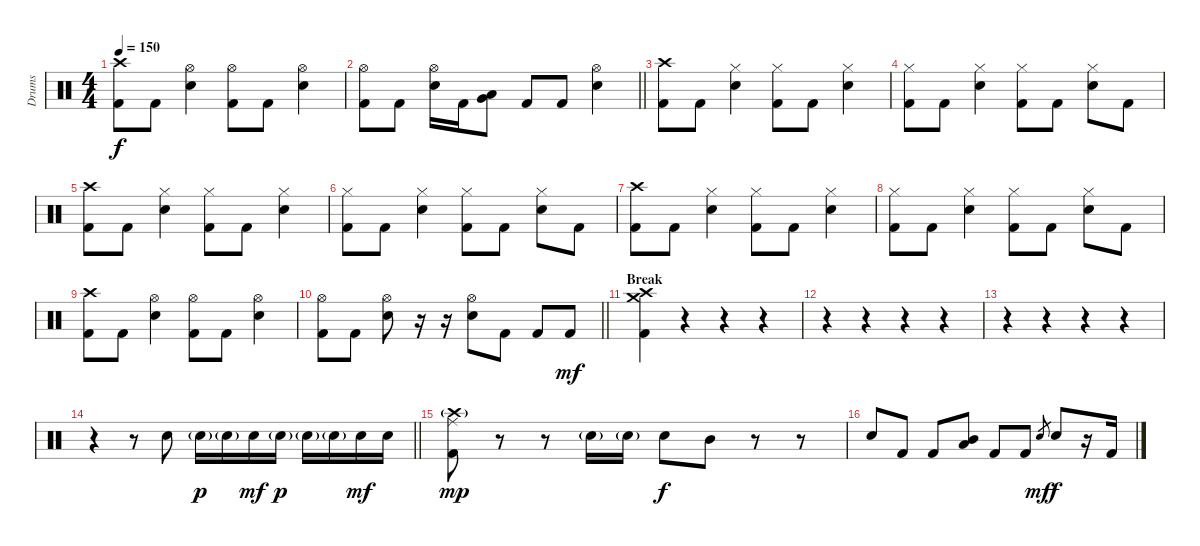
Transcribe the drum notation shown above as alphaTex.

\track ("Drums" "Drums") {instrument percussion}
\staff {score}
\articulation defaults
\ts (4 4)
\tempo 150
\clef neutral
\ks c
("Crash high (hit)" "Kick (hit) 2").8{dy f} "Kick (hit) 2".8 ("Hi-Hat (open)" "Electric Snare (hit)").4 ("Hi-Hat (open)" "Kick (hit) 2").8 "Kick (hit) 2".8 ("Hi-Hat (open)" "Electric Snare (hit)").4 |
\barLineRight lightlight
("Hi-Hat (open)" "Kick (hit) 2").8 "Kick (hit) 2".8 ("Hi-Hat (open)" "Electric Snare (hit)").16 "Kick (hit) 2".16 ("Low Tom (hit)" "Very Low Tom (hit)").8 "Kick (hit) 2".8 "Kick (hit) 2".8 ("Hi-Hat (open)" "Electric Snare (hit)").4 |
("Crash high (hit)" "Kick (hit) 2").8 "Kick (hit) 2".8 ("Hi-Hat (closed)" "Electric Snare (hit)").4 ("Hi-Hat (closed)" "Kick (hit) 2").8 "Kick (hit) 2".8 ("Hi-Hat (closed)" "Electric Snare (hit)").4 |
("Hi-Hat (closed)" "Kick (hit) 2").8 "Kick (hit) 2".8 ("Hi-Hat (closed)" "Electric Snare (hit)").4 ("Hi-Hat (closed)" "Kick (hit) 2").8 "Kick (hit) 2".8 ("Hi-Hat (closed)" "Electric Snare (hit)").8 "Kick (hit) 2".8 |
("Crash high (hit)" "Kick (hit) 2").8 "Kick (hit) 2".8 ("Hi-Hat (closed)" "Electric Snare (hit)").4 ("Hi-Hat (closed)" "Kick (hit) 2").8 "Kick (hit) 2".8 ("Hi-Hat (closed)" "Electric Snare (hit)").4 |
("Hi-Hat (closed)" "Kick (hit) 2").8 "Kick (hit) 2".8 ("Hi-Hat (closed)" "Electric Snare (hit)").4 ("Hi-Hat (closed)" "Kick (hit) 2").8 "Kick (hit) 2".8 ("Hi-Hat (closed)" "Electric Snare (hit)").8 "Kick (hit) 2".8 |
("Crash high (hit)" "Kick (hit) 2").8 "Kick (hit) 2".8 ("Hi-Hat (closed)" "Electric Snare (hit)").4 ("Hi-Hat (closed)" "Kick (hit) 2").8 "Kick (hit) 2".8 ("Hi-Hat (closed)" "Electric Snare (hit)").4 |
("Hi-Hat (closed)" "Kick (hit) 2").8 "Kick (hit) 2".8 ("Hi-Hat (closed)" "Electric Snare (hit)").4 ("Hi-Hat (closed)" "Kick (hit) 2").8 "Kick (hit) 2".8 ("Hi-Hat (closed)" "Electric Snare (hit)").8 "Kick (hit) 2".8 |
("Crash high (hit)" "Kick (hit) 2").8 "Kick (hit) 2".8 ("Hi-Hat (open)" "Electric Snare (hit)").4 ("Hi-Hat (open)" "Kick (hit) 2").8 "Kick (hit) 2".8 ("Hi-Hat (open)" "Electric Snare (hit)").4 |
\barLineRight lightlight
("Hi-Hat (open)" "Kick (hit) 2").8 "Kick (hit) 2".8 ("Hi-Hat (open)" "Electric Snare (hit)").8 r.16 r.16 ("Hi-Hat (open)" "Electric Snare (hit)").8 "Kick (hit) 2".8 "Kick (hit) 2".8 "Kick (hit) 2".8{dy mf} |
\section ("" "Break")
("Crash high (hit)" "Crash medium (hit)" "Kick (hit) 2").4 r.4 r.4 r.4 |
r.4 r.4 r.4 r.4 |
r.4 r.4 r.4 r.4 |
\barLineRight lightlight
r.4 r.8 "Electric Snare (hit)".8 "Electric Snare (hit)"{g}.16{dy p} "Electric Snare (hit)"{g}.16 "Electric Snare (hit)".16{dy mf} "Electric Snare (hit)"{g}.16{dy p} "Electric Snare (hit)"{g}.16 "Electric Snare (hit)"{g}.16 "Electric Snare (hit)".16{dy mf} "Electric Snare (hit)".16 |
("Ride (middle)" "Crash high (hit)"{g} "Kick (hit) 2").8{dy mp} r.8 r.8 "Electric Snare (hit)"{g}.16 "Electric Snare (hit)"{g}.16 "Electric Snare (hit)".8{dy f} "Mid Tom (hit)".8 r.8 r.8 |
"Electric Snare (hit)".8 "Kick (hit) 2".8 "Kick (hit) 2".8 ("Mid Tom (hit)" "Low Tom (hit)").8 "Kick (hit) 2".8 "Kick (hit) 2".8 "Electric Snare (hit)".8{gr dy mf} "Electric Snare (hit)".8{dy f} r.16 "Kick (hit) 2".16
